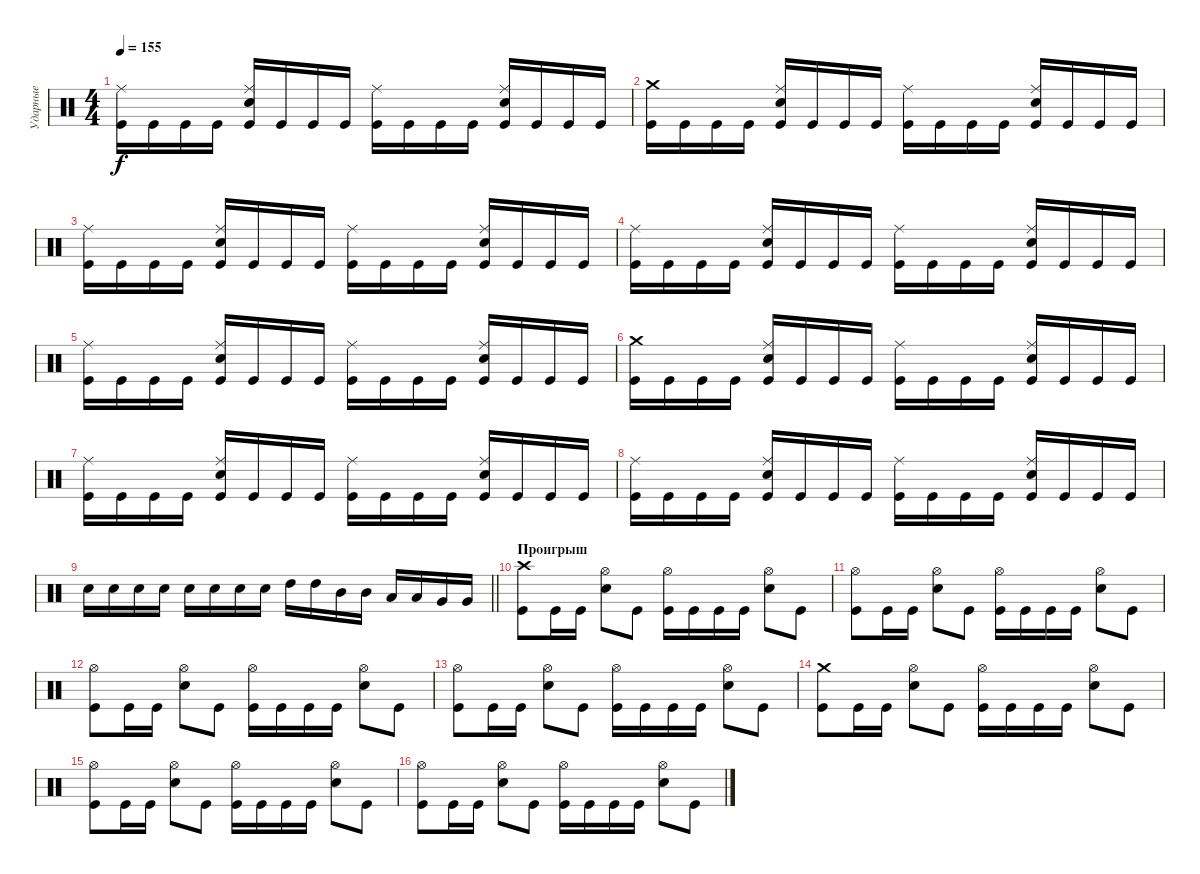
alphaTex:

\track ("Ударные" "Ударные") {instrument percussion}
\staff {score}
\articulation defaults
\ts (4 4)
\tempo 155
\clef neutral
\ks c
("Kick (hit)" "Ride (middle)").16{dy f} "Kick (hit)".16 "Kick (hit)".16 "Kick (hit)".16 ("Kick (hit)" "Snare (hit) 2" "Ride (middle)").16 "Kick (hit)".16 "Kick (hit)".16 "Kick (hit)".16 ("Kick (hit)" "Ride (middle)").16 "Kick (hit)".16 "Kick (hit)".16 "Kick (hit)".16 ("Kick (hit)" "Snare (hit) 2" "Ride (middle)").16 "Kick (hit)".16 "Kick (hit)".16 "Kick (hit)".16 |
("Kick (hit)" "Crash medium (hit)").16 "Kick (hit)".16 "Kick (hit)".16 "Kick (hit)".16 ("Kick (hit)" "Snare (hit) 2" "Ride (middle)").16 "Kick (hit)".16 "Kick (hit)".16 "Kick (hit)".16 ("Kick (hit)" "Ride (middle)").16 "Kick (hit)".16 "Kick (hit)".16 "Kick (hit)".16 ("Kick (hit)" "Snare (hit) 2" "Ride (middle)").16 "Kick (hit)".16 "Kick (hit)".16 "Kick (hit)".16 |
("Kick (hit)" "Ride (middle)").16 "Kick (hit)".16 "Kick (hit)".16 "Kick (hit)".16 ("Kick (hit)" "Snare (hit) 2" "Ride (middle)").16 "Kick (hit)".16 "Kick (hit)".16 "Kick (hit)".16 ("Kick (hit)" "Ride (middle)").16 "Kick (hit)".16 "Kick (hit)".16 "Kick (hit)".16 ("Kick (hit)" "Snare (hit) 2" "Ride (middle)").16 "Kick (hit)".16 "Kick (hit)".16 "Kick (hit)".16 |
("Kick (hit)" "Ride (middle)").16 "Kick (hit)".16 "Kick (hit)".16 "Kick (hit)".16 ("Kick (hit)" "Snare (hit) 2" "Ride (middle)").16 "Kick (hit)".16 "Kick (hit)".16 "Kick (hit)".16 ("Kick (hit)" "Ride (middle)").16 "Kick (hit)".16 "Kick (hit)".16 "Kick (hit)".16 ("Kick (hit)" "Snare (hit) 2" "Ride (middle)").16 "Kick (hit)".16 "Kick (hit)".16 "Kick (hit)".16 |
("Kick (hit)" "Ride (middle)").16 "Kick (hit)".16 "Kick (hit)".16 "Kick (hit)".16 ("Kick (hit)" "Snare (hit) 2" "Ride (middle)").16 "Kick (hit)".16 "Kick (hit)".16 "Kick (hit)".16 ("Kick (hit)" "Ride (middle)").16 "Kick (hit)".16 "Kick (hit)".16 "Kick (hit)".16 ("Kick (hit)" "Snare (hit) 2" "Ride (middle)").16 "Kick (hit)".16 "Kick (hit)".16 "Kick (hit)".16 |
("Kick (hit)" "Crash medium (hit)").16 "Kick (hit)".16 "Kick (hit)".16 "Kick (hit)".16 ("Kick (hit)" "Snare (hit) 2" "Ride (middle)").16 "Kick (hit)".16 "Kick (hit)".16 "Kick (hit)".16 ("Kick (hit)" "Ride (middle)").16 "Kick (hit)".16 "Kick (hit)".16 "Kick (hit)".16 ("Kick (hit)" "Snare (hit) 2" "Ride (middle)").16 "Kick (hit)".16 "Kick (hit)".16 "Kick (hit)".16 |
("Kick (hit)" "Ride (middle)").16 "Kick (hit)".16 "Kick (hit)".16 "Kick (hit)".16 ("Kick (hit)" "Snare (hit) 2" "Ride (middle)").16 "Kick (hit)".16 "Kick (hit)".16 "Kick (hit)".16 ("Kick (hit)" "Ride (middle)").16 "Kick (hit)".16 "Kick (hit)".16 "Kick (hit)".16 ("Kick (hit)" "Snare (hit) 2" "Ride (middle)").16 "Kick (hit)".16 "Kick (hit)".16 "Kick (hit)".16 |
("Kick (hit)" "Ride (middle)").16 "Kick (hit)".16 "Kick (hit)".16 "Kick (hit)".16 ("Kick (hit)" "Snare (hit) 2" "Ride (middle)").16 "Kick (hit)".16 "Kick (hit)".16 "Kick (hit)".16 ("Kick (hit)" "Ride (middle)").16 "Kick (hit)".16 "Kick (hit)".16 "Kick (hit)".16 ("Kick (hit)" "Snare (hit) 2" "Ride (middle)").16 "Kick (hit)".16 "Kick (hit)".16 "Kick (hit)".16 |
\barLineRight lightlight "Snare (hit) 2".16 "Snare (hit) 2".16 "Snare (hit) 2".16 "Snare (hit) 2".16 "Snare (hit) 2".16 "Snare (hit) 2".16 "Snare (hit) 2".16 "Snare (hit) 2".16 "High Tom (hit)".16 "High Tom (hit)".16 "Mid Tom (hit)".16 "Mid Tom (hit)".16 "Low Tom (hit)".16 "Low Tom (hit)".16 "Very Low Tom (hit)".16 "Very Low Tom (hit)".16
|
\section ("" "Проигрыш")
("Kick (hit)" "Crash high (hit)").8 "Kick (hit)".16 "Kick (hit)".16 ("Snare (hit) 2" "Hi-Hat (open)").8 "Kick (hit)".8 ("Kick (hit)" "Hi-Hat (open)").16 "Kick (hit)".16 "Kick (hit)".16 "Kick (hit)".16 ("Snare (hit) 2" "Hi-Hat (open)").8 "Kick (hit)".8 |
("Kick (hit)" "Hi-Hat (open)").8 "Kick (hit)".16 "Kick (hit)".16 ("Snare (hit) 2" "Hi-Hat (open)").8 "Kick (hit)".8 ("Kick (hit)" "Hi-Hat (open)").16 "Kick (hit)".16 "Kick (hit)".16 "Kick (hit)".16 ("Snare (hit) 2" "Hi-Hat (open)").8 "Kick (hit)".8 |
("Kick (hit)" "Hi-Hat (open)").8 "Kick (hit)".16 "Kick (hit)".16 ("Snare (hit) 2" "Hi-Hat (open)").8 "Kick (hit)".8 ("Kick (hit)" "Hi-Hat (open)").16 "Kick (hit)".16 "Kick (hit)".16 "Kick (hit)".16 ("Snare (hit) 2" "Hi-Hat (open)").8 "Kick (hit)".8 |
("Kick (hit)" "Hi-Hat (open)").8 "Kick (hit)".16 "Kick (hit)".16 ("Snare (hit) 2" "Hi-Hat (open)").8 "Kick (hit)".8 ("Kick (hit)" "Hi-Hat (open)").16 "Kick (hit)".16 "Kick (hit)".16 "Kick (hit)".16 ("Snare (hit) 2" "Hi-Hat (open)").8 "Kick (hit)".8 |
("Kick (hit)" "Crash medium (hit)").8 "Kick (hit)".16 "Kick (hit)".16 ("Snare (hit) 2" "Hi-Hat (open)").8 "Kick (hit)".8 ("Kick (hit)" "Hi-Hat (open)").16 "Kick (hit)".16 "Kick (hit)".16 "Kick (hit)".16 ("Snare (hit) 2" "Hi-Hat (open)").8 "Kick (hit)".8 |
("Kick (hit)" "Hi-Hat (open)").8 "Kick (hit)".16 "Kick (hit)".16 ("Snare (hit) 2" "Hi-Hat (open)").8 "Kick (hit)".8 ("Kick (hit)" "Hi-Hat (open)").16 "Kick (hit)".16 "Kick (hit)".16 "Kick (hit)".16 ("Snare (hit) 2" "Hi-Hat (open)").8 "Kick (hit)".8 |
("Kick (hit)" "Hi-Hat (open)").8 "Kick (hit)".16 "Kick (hit)".16 ("Snare (hit) 2" "Hi-Hat (open)").8 "Kick (hit)".8 ("Kick (hit)" "Hi-Hat (open)").16 "Kick (hit)".16 "Kick (hit)".16 "Kick (hit)".16 ("Snare (hit) 2" "Hi-Hat (open)").8 "Kick (hit)".8
